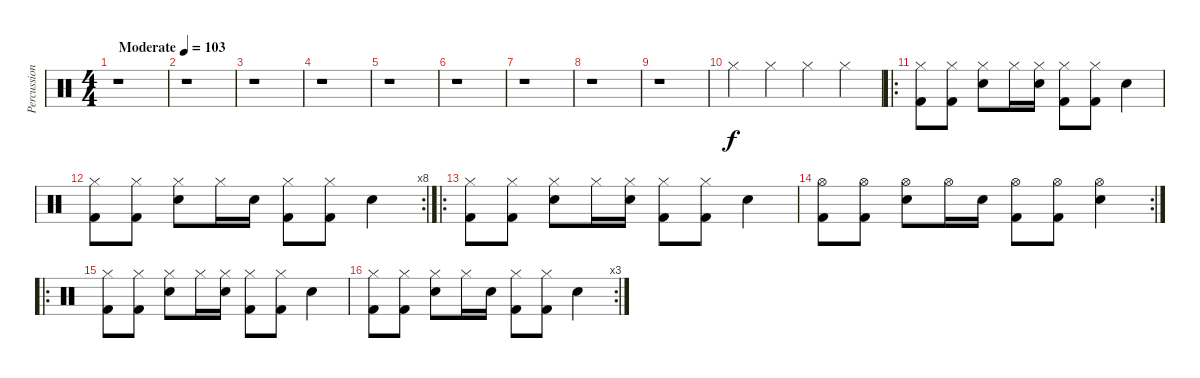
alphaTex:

\track ("Percussions" "Percussion") {instrument percussion}
\staff {score}
\articulation defaults
\ts (4 4)
\tempo (103 "Moderate")
\clef neutral
\ks c
r.1{dy f} |
r.1 |
r.1 |
r.1 |
r.1 |
r.1 |
r.1 |
r.1 |
r.1 |
"Hi-Hat (closed)".4 "Hi-Hat (closed)".4 "Hi-Hat (closed)".4 "Hi-Hat (closed)".4 |
\ro
("Hi-Hat (closed)" "Kick (hit) 2").8 ("Hi-Hat (closed)" "Kick (hit) 2").8 ("Hi-Hat (closed)" "Electric Snare (hit)").8 "Hi-Hat (closed)".16 ("Hi-Hat (closed)" "Electric Snare (hit)").16 ("Hi-Hat (closed)" "Kick (hit) 2").8 ("Hi-Hat (closed)" "Kick (hit) 2").8 "Electric Snare (hit)".4 |
\rc 8
("Hi-Hat (closed)" "Kick (hit) 2").8 ("Hi-Hat (closed)" "Kick (hit) 2").8 ("Hi-Hat (closed)" "Electric Snare (hit)").8 "Hi-Hat (closed)".16 "Electric Snare (hit)".16 ("Hi-Hat (closed)" "Kick (hit) 2").8 ("Hi-Hat (closed)" "Kick (hit) 2").8 "Electric Snare (hit)".4 |
\ro
("Hi-Hat (closed)" "Kick (hit) 2").8 ("Hi-Hat (closed)" "Kick (hit) 2").8 ("Hi-Hat (closed)" "Electric Snare (hit)").8 "Hi-Hat (closed)".16 ("Hi-Hat (closed)" "Electric Snare (hit)").16 ("Hi-Hat (closed)" "Kick (hit) 2").8 ("Hi-Hat (closed)" "Kick (hit) 2").8 "Electric Snare (hit)".4 |
\rc 2
("Hi-Hat (open)" "Kick (hit) 2").8 ("Hi-Hat (open)" "Kick (hit) 2").8 ("Hi-Hat (open)" "Electric Snare (hit)").8 "Hi-Hat (open)".16 "Electric Snare (hit)".16 ("Hi-Hat (open)" "Kick (hit) 2").8 ("Hi-Hat (open)" "Kick (hit) 2").8 ("Hi-Hat (open)" "Electric Snare (hit)").4 |
\ro
("Hi-Hat (closed)" "Kick (hit) 2").8 ("Hi-Hat (closed)" "Kick (hit) 2").8 ("Hi-Hat (closed)" "Electric Snare (hit)").8 "Hi-Hat (closed)".16 ("Hi-Hat (closed)" "Electric Snare (hit)").16 ("Hi-Hat (closed)" "Kick (hit) 2").8 ("Hi-Hat (closed)" "Kick (hit) 2").8 "Electric Snare (hit)".4 |
\rc 3
("Hi-Hat (closed)" "Kick (hit) 2").8 ("Hi-Hat (closed)" "Kick (hit) 2").8 ("Hi-Hat (closed)" "Electric Snare (hit)").8 "Hi-Hat (closed)".16 "Electric Snare (hit)".16 ("Hi-Hat (closed)" "Kick (hit) 2").8 ("Hi-Hat (closed)" "Kick (hit) 2").8 "Electric Snare (hit)".4
